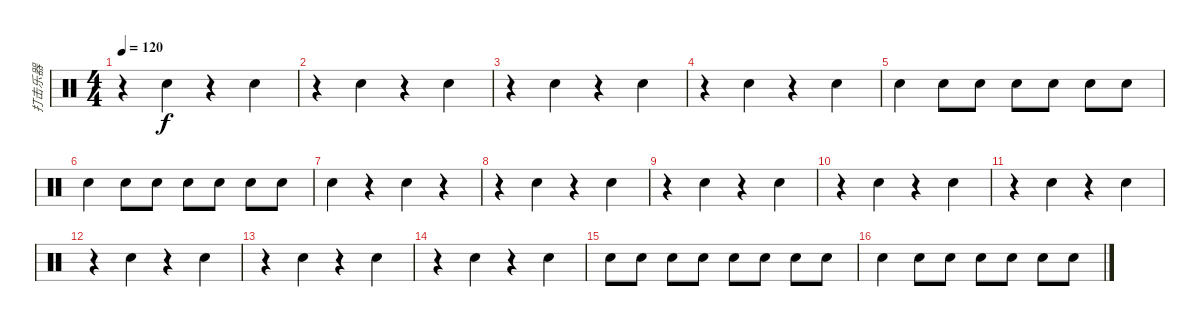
\track ("打击乐器" "打击乐器") {instrument percussion}
\staff {score}
\articulation defaults
\ts (4 4)
\tempo 120
\clef neutral
\ks c
r.4{dy f} "Electric Snare (hit)".4 r.4 "Electric Snare (hit)".4 |
r.4 "Electric Snare (hit)".4 r.4 "Electric Snare (hit)".4 |
r.4 "Electric Snare (hit)".4 r.4 "Electric Snare (hit)".4 |
r.4 "Electric Snare (hit)".4 r.4 "Electric Snare (hit)".4 |
"Electric Snare (hit)".4 "Electric Snare (hit)".8 "Electric Snare (hit)".8 "Electric Snare (hit)".8 "Electric Snare (hit)".8 "Electric Snare (hit)".8 "Electric Snare (hit)".8 |
"Electric Snare (hit)".4 "Electric Snare (hit)".8 "Electric Snare (hit)".8 "Electric Snare (hit)".8 "Electric Snare (hit)".8 "Electric Snare (hit)".8 "Electric Snare (hit)".8 |
"Electric Snare (hit)".4 r.4 "Electric Snare (hit)".4 r.4 |
r.4 "Electric Snare (hit)".4 r.4 "Electric Snare (hit)".4 |
r.4 "Electric Snare (hit)".4 r.4 "Electric Snare (hit)".4 |
r.4 "Electric Snare (hit)".4 r.4 "Electric Snare (hit)".4 |
r.4 "Electric Snare (hit)".4 r.4 "Electric Snare (hit)".4 |
r.4 "Electric Snare (hit)".4 r.4 "Electric Snare (hit)".4 |
r.4 "Electric Snare (hit)".4 r.4 "Electric Snare (hit)".4 |
r.4 "Electric Snare (hit)".4 r.4 "Electric Snare (hit)".4 |
"Electric Snare (hit)".8 "Electric Snare (hit)".8 "Electric Snare (hit)".8 "Electric Snare (hit)".8 "Electric Snare (hit)".8 "Electric Snare (hit)".8 "Electric Snare (hit)".8 "Electric Snare (hit)".8 |
"Electric Snare (hit)".4 "Electric Snare (hit)".8 "Electric Snare (hit)".8 "Electric Snare (hit)".8 "Electric Snare (hit)".8 "Electric Snare (hit)".8 "Electric Snare (hit)".8
